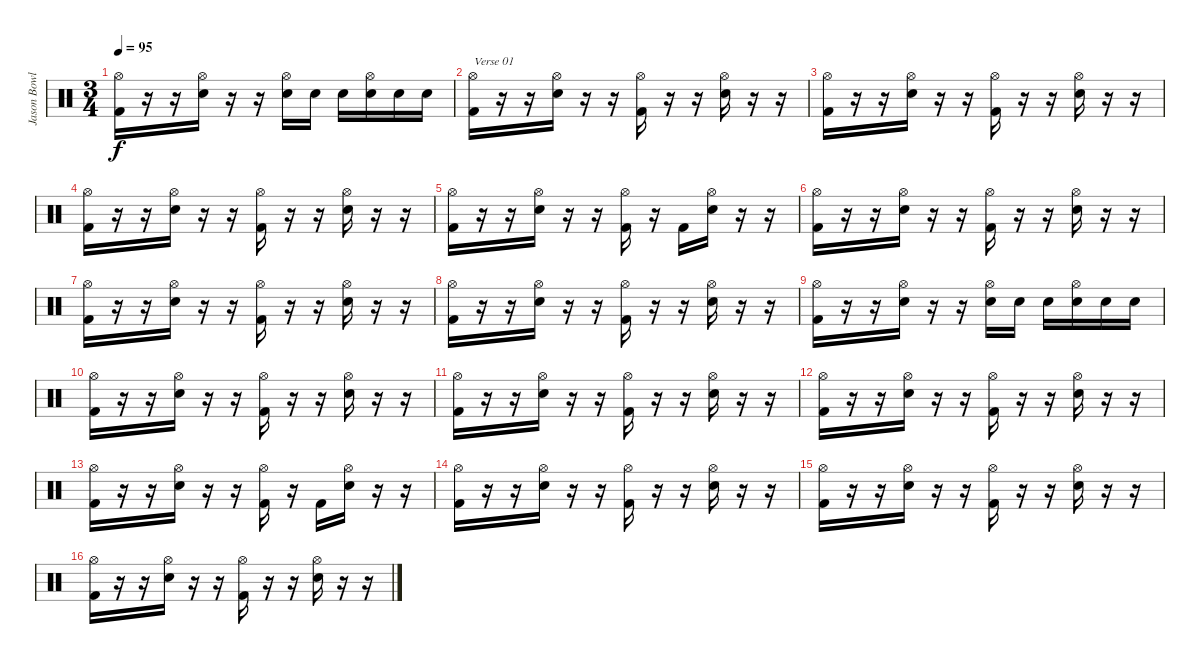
\track ("Jason Bowld" "Jason Bowl") {instrument percussion}
\staff {score}
\articulation defaults
\ts (3 4)
\tempo 95
\clef neutral
\ks c
("Hi-Hat (open)" "Kick (hit) 2").16{dy f} r.16 r.16 ("Hi-Hat (open)" "Snare (hit) 2").16 r.16 r.16 ("Hi-Hat (open)" "Snare (hit) 2").16 "Snare (hit) 2".16 "Snare (hit) 2".16 ("Hi-Hat (open)" "Snare (hit) 2").16 "Snare (hit) 2".16 "Snare (hit) 2".16 |
("Hi-Hat (open)" "Kick (hit) 2").16{txt "Verse 01"} r.16 r.16 ("Hi-Hat (open)" "Snare (hit) 2").16 r.16 r.16 ("Hi-Hat (open)" "Kick (hit) 2").16 r.16 r.16 ("Hi-Hat (open)" "Snare (hit) 2").16 r.16 r.16 |
("Hi-Hat (open)" "Kick (hit) 2").16 r.16 r.16 ("Hi-Hat (open)" "Snare (hit) 2").16 r.16 r.16 ("Hi-Hat (open)" "Kick (hit) 2").16 r.16 r.16 ("Hi-Hat (open)" "Snare (hit) 2").16 r.16 r.16 |
("Hi-Hat (open)" "Kick (hit) 2").16 r.16 r.16 ("Hi-Hat (open)" "Snare (hit) 2").16 r.16 r.16 ("Hi-Hat (open)" "Kick (hit) 2").16 r.16 r.16 ("Hi-Hat (open)" "Snare (hit) 2").16 r.16 r.16 |
("Hi-Hat (open)" "Kick (hit) 2").16 r.16 r.16 ("Hi-Hat (open)" "Snare (hit) 2").16 r.16 r.16 ("Hi-Hat (open)" "Kick (hit) 2").16 r.16 "Kick (hit) 2".16 ("Hi-Hat (open)" "Snare (hit) 2").16 r.16 r.16 |
("Hi-Hat (open)" "Kick (hit) 2").16 r.16 r.16 ("Hi-Hat (open)" "Snare (hit) 2").16 r.16 r.16 ("Hi-Hat (open)" "Kick (hit) 2").16 r.16 r.16 ("Hi-Hat (open)" "Snare (hit) 2").16 r.16 r.16 |
("Hi-Hat (open)" "Kick (hit) 2").16 r.16 r.16 ("Hi-Hat (open)" "Snare (hit) 2").16 r.16 r.16 ("Hi-Hat (open)" "Kick (hit) 2").16 r.16 r.16 ("Hi-Hat (open)" "Snare (hit) 2").16 r.16 r.16 |
("Hi-Hat (open)" "Kick (hit) 2").16 r.16 r.16 ("Hi-Hat (open)" "Snare (hit) 2").16 r.16 r.16 ("Hi-Hat (open)" "Kick (hit) 2").16 r.16 r.16 ("Hi-Hat (open)" "Snare (hit) 2").16 r.16 r.16 |
("Hi-Hat (open)" "Kick (hit) 2").16 r.16 r.16 ("Hi-Hat (open)" "Snare (hit) 2").16 r.16 r.16 ("Hi-Hat (open)" "Snare (hit) 2").16 "Snare (hit) 2".16 "Snare (hit) 2".16 ("Hi-Hat (open)" "Snare (hit) 2").16 "Snare (hit) 2".16 "Snare (hit) 2".16 |
("Hi-Hat (open)" "Kick (hit) 2").16 r.16 r.16 ("Hi-Hat (open)" "Snare (hit) 2").16 r.16 r.16 ("Hi-Hat (open)" "Kick (hit) 2").16 r.16 r.16 ("Hi-Hat (open)" "Snare (hit) 2").16 r.16 r.16 |
("Hi-Hat (open)" "Kick (hit) 2").16 r.16 r.16 ("Hi-Hat (open)" "Snare (hit) 2").16 r.16 r.16 ("Hi-Hat (open)" "Kick (hit) 2").16 r.16 r.16 ("Hi-Hat (open)" "Snare (hit) 2").16 r.16 r.16 |
("Hi-Hat (open)" "Kick (hit) 2").16 r.16 r.16 ("Hi-Hat (open)" "Snare (hit) 2").16 r.16 r.16 ("Hi-Hat (open)" "Kick (hit) 2").16 r.16 r.16 ("Hi-Hat (open)" "Snare (hit) 2").16 r.16 r.16 |
("Hi-Hat (open)" "Kick (hit) 2").16 r.16 r.16 ("Hi-Hat (open)" "Snare (hit) 2").16 r.16 r.16 ("Hi-Hat (open)" "Kick (hit) 2").16 r.16 "Kick (hit) 2".16 ("Hi-Hat (open)" "Snare (hit) 2").16 r.16 r.16 |
("Hi-Hat (open)" "Kick (hit) 2").16 r.16 r.16 ("Hi-Hat (open)" "Snare (hit) 2").16 r.16 r.16 ("Hi-Hat (open)" "Kick (hit) 2").16 r.16 r.16 ("Hi-Hat (open)" "Snare (hit) 2").16 r.16 r.16 |
("Hi-Hat (open)" "Kick (hit) 2").16 r.16 r.16 ("Hi-Hat (open)" "Snare (hit) 2").16 r.16 r.16 ("Hi-Hat (open)" "Kick (hit) 2").16 r.16 r.16 ("Hi-Hat (open)" "Snare (hit) 2").16 r.16 r.16 |
("Hi-Hat (open)" "Kick (hit) 2").16 r.16 r.16 ("Hi-Hat (open)" "Snare (hit) 2").16 r.16 r.16 ("Hi-Hat (open)" "Kick (hit) 2").16 r.16 r.16 ("Hi-Hat (open)" "Snare (hit) 2").16 r.16 r.16
